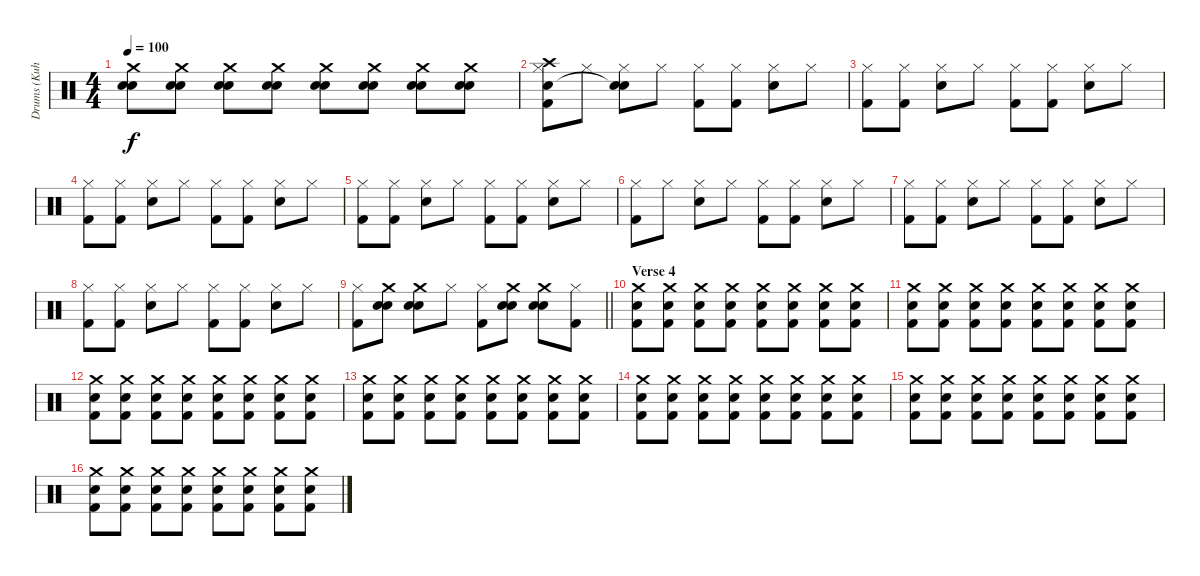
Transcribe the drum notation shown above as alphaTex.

\track ("Drums (Kuhara)" "Drums (Kuh") {instrument percussion}
\staff {score}
\articulation defaults
\ts (4 4)
\tempo 100
\clef neutral
\ks c
("Crash medium (hit)" "Electric Snare (hit)" "Electric Snare (hit)").8{dy f} ("Crash medium (hit)" "Electric Snare (hit)" "Electric Snare (hit)").8 ("Crash medium (hit)" "Electric Snare (hit)" "Electric Snare (hit)").8 ("Crash medium (hit)" "Electric Snare (hit)" "Electric Snare (hit)").8 ("Crash medium (hit)" "Electric Snare (hit)" "Electric Snare (hit)").8 ("Crash medium (hit)" "Electric Snare (hit)" "Electric Snare (hit)").8 ("Crash medium (hit)" "Electric Snare (hit)" "Electric Snare (hit)").8 ("Crash medium (hit)" "Electric Snare (hit)" "Electric Snare (hit)").8 |
("Hi-Hat (closed)" "Electric Snare (hit)" "Crash high (hit)" "Kick (hit) 2").8{volume 12} "Hi-Hat (closed)".8 ("Hi-Hat (closed)" "Snare (hit)"{t} "Electric Snare (hit)").8 "Hi-Hat (closed)".8 ("Hi-Hat (closed)" "Kick (hit) 2").8 ("Hi-Hat (closed)" "Kick (hit) 2").8 ("Hi-Hat (closed)" "Electric Snare (hit)").8 "Hi-Hat (closed)".8 |
("Hi-Hat (closed)" "Kick (hit) 2").8 ("Hi-Hat (closed)" "Kick (hit) 2").8 ("Hi-Hat (closed)" "Electric Snare (hit)").8 "Hi-Hat (closed)".8 ("Hi-Hat (closed)" "Kick (hit) 2").8 ("Hi-Hat (closed)" "Kick (hit) 2").8 ("Hi-Hat (closed)" "Electric Snare (hit)").8 "Hi-Hat (closed)".8 |
("Hi-Hat (closed)" "Kick (hit) 2").8 ("Hi-Hat (closed)" "Kick (hit) 2").8 ("Hi-Hat (closed)" "Electric Snare (hit)").8 "Hi-Hat (closed)".8 ("Hi-Hat (closed)" "Kick (hit) 2").8 ("Hi-Hat (closed)" "Kick (hit) 2").8 ("Hi-Hat (closed)" "Electric Snare (hit)").8 "Hi-Hat (closed)".8 |
("Hi-Hat (closed)" "Kick (hit) 2").8 ("Hi-Hat (closed)" "Kick (hit) 2").8 ("Hi-Hat (closed)" "Electric Snare (hit)").8 "Hi-Hat (closed)".8 ("Hi-Hat (closed)" "Kick (hit) 2").8 ("Hi-Hat (closed)" "Kick (hit) 2").8 ("Hi-Hat (closed)" "Electric Snare (hit)").8 "Hi-Hat (closed)".8 |
("Hi-Hat (closed)" "Kick (hit) 2").8 "Hi-Hat (closed)".8 ("Hi-Hat (closed)" "Electric Snare (hit)").8 "Hi-Hat (closed)".8 ("Hi-Hat (closed)" "Kick (hit) 2").8 ("Hi-Hat (closed)" "Kick (hit) 2").8 ("Hi-Hat (closed)" "Electric Snare (hit)").8 "Hi-Hat (closed)".8 |
("Hi-Hat (closed)" "Kick (hit) 2").8 ("Hi-Hat (closed)" "Kick (hit) 2").8 ("Hi-Hat (closed)" "Electric Snare (hit)").8 "Hi-Hat (closed)".8 ("Hi-Hat (closed)" "Kick (hit) 2").8 ("Hi-Hat (closed)" "Kick (hit) 2").8 ("Hi-Hat (closed)" "Electric Snare (hit)").8 "Hi-Hat (closed)".8 |
("Hi-Hat (closed)" "Kick (hit) 2").8 ("Hi-Hat (closed)" "Kick (hit) 2").8 ("Hi-Hat (closed)" "Electric Snare (hit)").8 "Hi-Hat (closed)".8 ("Hi-Hat (closed)" "Kick (hit) 2").8 ("Hi-Hat (closed)" "Kick (hit) 2").8 ("Hi-Hat (closed)" "Electric Snare (hit)").8 "Hi-Hat (closed)".8 |
\barLineRight lightlight
("Hi-Hat (closed)" "Kick (hit) 2").8 ("Crash medium (hit)" "Electric Snare (hit)" "Electric Snare (hit)").8 ("Crash medium (hit)" "Electric Snare (hit)" "Electric Snare (hit)").8 "Hi-Hat (closed)".8 ("Hi-Hat (closed)" "Kick (hit) 2").8 ("Crash medium (hit)" "Electric Snare (hit)" "Electric Snare (hit)").8 ("Crash medium (hit)" "Electric Snare (hit)" "Electric Snare (hit)").8 ("Hi-Hat (closed)" "Kick (hit) 2").8 |
\section ("" "Verse 4")
("Crash medium (hit)" "Electric Snare (hit)" "Kick (hit) 2").8{volume 7} ("Crash medium (hit)" "Electric Snare (hit)" "Kick (hit) 2").8 ("Crash medium (hit)" "Electric Snare (hit)" "Kick (hit) 2").8 ("Crash medium (hit)" "Electric Snare (hit)" "Kick (hit) 2").8 ("Crash medium (hit)" "Electric Snare (hit)" "Kick (hit) 2").8 ("Crash medium (hit)" "Electric Snare (hit)" "Kick (hit) 2").8 ("Crash medium (hit)" "Electric Snare (hit)" "Kick (hit) 2").8 ("Crash medium (hit)" "Electric Snare (hit)" "Kick (hit) 2").8 |
("Crash medium (hit)" "Electric Snare (hit)" "Kick (hit) 2").8 ("Crash medium (hit)" "Electric Snare (hit)" "Kick (hit) 2").8 ("Crash medium (hit)" "Electric Snare (hit)" "Kick (hit) 2").8 ("Crash medium (hit)" "Electric Snare (hit)" "Kick (hit) 2").8 ("Crash medium (hit)" "Electric Snare (hit)" "Kick (hit) 2").8 ("Crash medium (hit)" "Electric Snare (hit)" "Kick (hit) 2").8 ("Crash medium (hit)" "Electric Snare (hit)" "Kick (hit) 2").8 ("Crash medium (hit)" "Electric Snare (hit)" "Kick (hit) 2").8 |
("Crash medium (hit)" "Electric Snare (hit)" "Kick (hit) 2").8 ("Crash medium (hit)" "Electric Snare (hit)" "Kick (hit) 2").8 ("Crash medium (hit)" "Electric Snare (hit)" "Kick (hit) 2").8 ("Crash medium (hit)" "Electric Snare (hit)" "Kick (hit) 2").8 ("Crash medium (hit)" "Electric Snare (hit)" "Kick (hit) 2").8 ("Crash medium (hit)" "Electric Snare (hit)" "Kick (hit) 2").8 ("Crash medium (hit)" "Electric Snare (hit)" "Kick (hit) 2").8 ("Crash medium (hit)" "Electric Snare (hit)" "Kick (hit) 2").8 |
("Crash medium (hit)" "Electric Snare (hit)" "Kick (hit) 2").8 ("Crash medium (hit)" "Electric Snare (hit)" "Kick (hit) 2").8 ("Crash medium (hit)" "Electric Snare (hit)" "Kick (hit) 2").8 ("Crash medium (hit)" "Electric Snare (hit)" "Kick (hit) 2").8 ("Crash medium (hit)" "Electric Snare (hit)" "Kick (hit) 2").8 ("Crash medium (hit)" "Electric Snare (hit)" "Kick (hit) 2").8 ("Crash medium (hit)" "Electric Snare (hit)" "Kick (hit) 2").8 ("Crash medium (hit)" "Electric Snare (hit)" "Kick (hit) 2").8 |
("Crash medium (hit)" "Electric Snare (hit)" "Kick (hit) 2").8 ("Crash medium (hit)" "Electric Snare (hit)" "Kick (hit) 2").8 ("Crash medium (hit)" "Electric Snare (hit)" "Kick (hit) 2").8 ("Crash medium (hit)" "Electric Snare (hit)" "Kick (hit) 2").8 ("Crash medium (hit)" "Electric Snare (hit)" "Kick (hit) 2").8 ("Crash medium (hit)" "Electric Snare (hit)" "Kick (hit) 2").8 ("Crash medium (hit)" "Electric Snare (hit)" "Kick (hit) 2").8 ("Crash medium (hit)" "Electric Snare (hit)" "Kick (hit) 2").8 |
("Crash medium (hit)" "Electric Snare (hit)" "Kick (hit) 2").8 ("Crash medium (hit)" "Electric Snare (hit)" "Kick (hit) 2").8 ("Crash medium (hit)" "Electric Snare (hit)" "Kick (hit) 2").8 ("Crash medium (hit)" "Electric Snare (hit)" "Kick (hit) 2").8 ("Crash medium (hit)" "Electric Snare (hit)" "Kick (hit) 2").8 ("Crash medium (hit)" "Electric Snare (hit)" "Kick (hit) 2").8 ("Crash medium (hit)" "Electric Snare (hit)" "Kick (hit) 2").8 ("Crash medium (hit)" "Electric Snare (hit)" "Kick (hit) 2").8 |
("Crash medium (hit)" "Electric Snare (hit)" "Kick (hit) 2").8 ("Crash medium (hit)" "Electric Snare (hit)" "Kick (hit) 2").8 ("Crash medium (hit)" "Electric Snare (hit)" "Kick (hit) 2").8 ("Crash medium (hit)" "Electric Snare (hit)" "Kick (hit) 2").8 ("Crash medium (hit)" "Electric Snare (hit)" "Kick (hit) 2").8 ("Crash medium (hit)" "Electric Snare (hit)" "Kick (hit) 2").8 ("Crash medium (hit)" "Electric Snare (hit)" "Kick (hit) 2").8 ("Crash medium (hit)" "Electric Snare (hit)" "Kick (hit) 2").8
